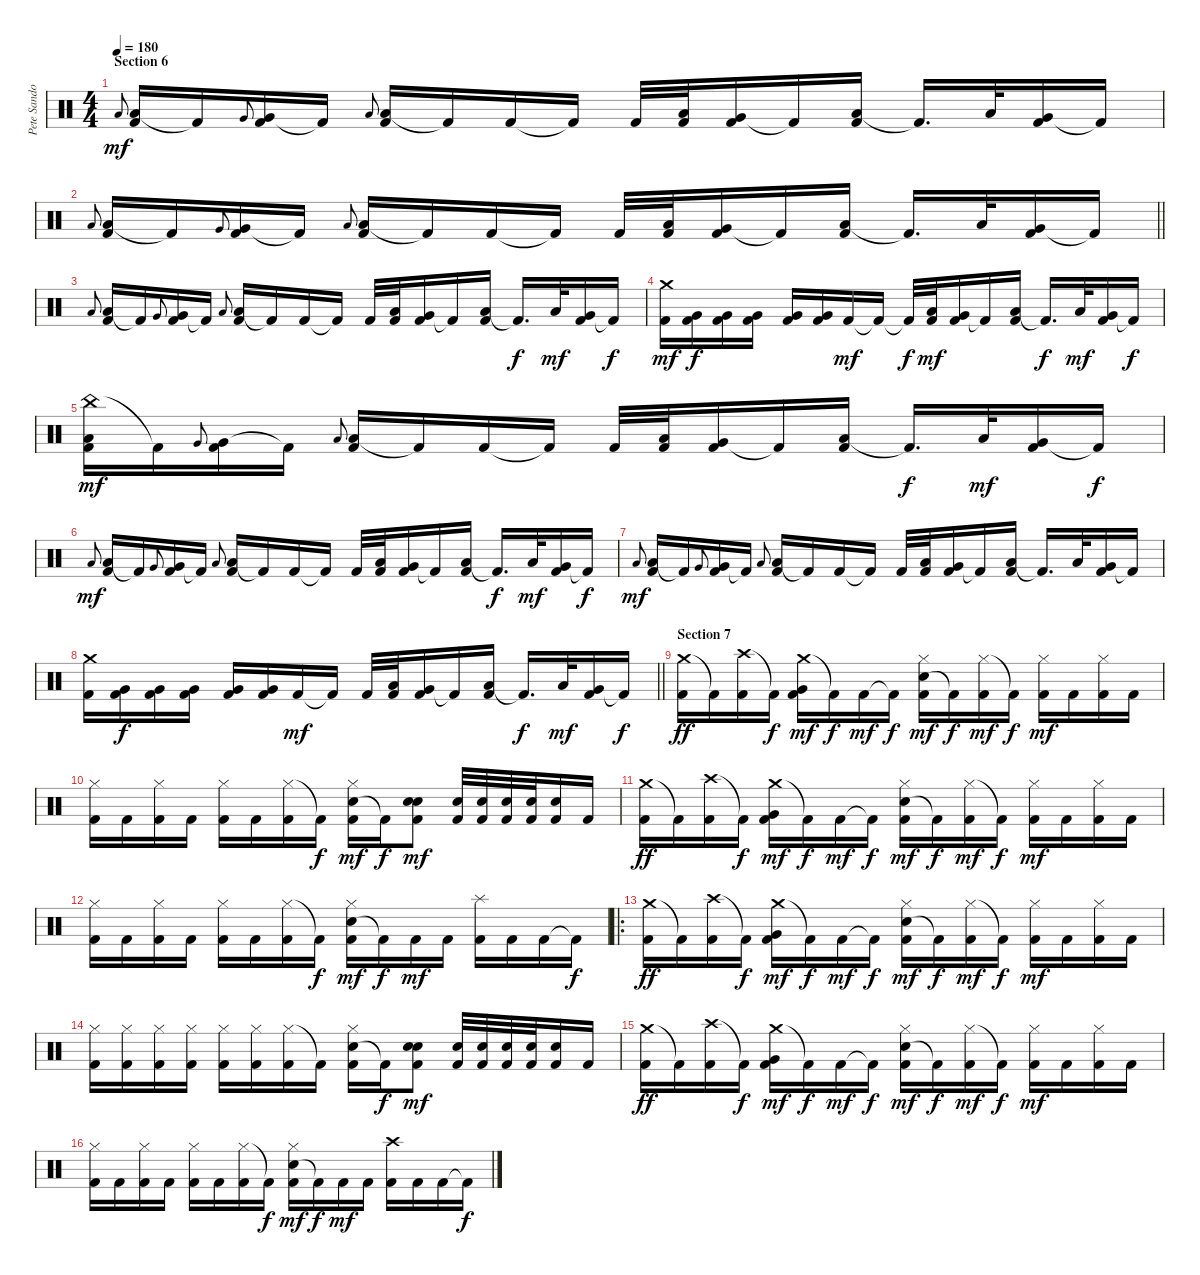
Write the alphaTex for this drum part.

\track ("Pete Sandoval" "Pete Sando") {instrument percussion}
\staff {score}
\articulation defaults
\ts (4 4)
\section ("" "Section 6")
\tempo 180
\clef neutral
\ks c "Low Tom (hit)".8{gr onbeat dy mf}
("Low Tom (hit)" "Kick (hit) 2").16 "Kick (hit) 2"{t}.16 "Very Low Tom (hit)".8{gr onbeat} ("Very Low Tom (hit)" "Kick (hit) 2").16 "Kick (hit) 2"{t}.16 "Low Tom (hit)".8{gr onbeat} ("Low Tom (hit)" "Kick (hit) 2").16 "Kick (hit) 2"{t}.16 "Kick (hit) 2".16 "Kick (hit) 2"{t}.16 "Kick (hit) 2".32 ("Low Tom (hit)" "Kick (hit) 2").32 ("Very Low Tom (hit)" "Kick (hit) 2").16 "Kick (hit) 2"{t}.16 ("Low Tom (hit)" "Kick (hit) 2").16 "Kick (hit) 2"{t}.16{d} "Low Floor Tom (hit)".32 ("Very Low Tom (hit)" "Kick (hit) 2").16 "Kick (hit) 2"{t}.16 |
\barLineRight lightlight "Low Tom (hit)".8{gr onbeat}
("Low Tom (hit)" "Kick (hit) 2").16 "Kick (hit) 2"{t}.16 "Very Low Tom (hit)".8{gr onbeat} ("Very Low Tom (hit)" "Kick (hit) 2").16 "Kick (hit) 2"{t}.16 "Low Tom (hit)".8{gr onbeat} ("Low Tom (hit)" "Kick (hit) 2").16 "Kick (hit) 2"{t}.16 "Kick (hit) 2".16 "Kick (hit) 2"{t}.16 "Kick (hit) 2".32 ("Low Tom (hit)" "Kick (hit) 2").32 ("Very Low Tom (hit)" "Kick (hit) 2").16 "Kick (hit) 2"{t}.16 ("Low Tom (hit)" "Kick (hit) 2").16 "Kick (hit) 2"{t}.16{d} "Low Floor Tom (hit)".32 ("Very Low Tom (hit)" "Kick (hit) 2").16 "Kick (hit) 2"{t}.16 |
"Low Tom (hit)".8{gr onbeat} ("Low Tom (hit)" "Kick (hit) 2").16 "Kick (hit) 2"{t}.16 "Very Low Tom (hit)".8{gr onbeat} ("Very Low Tom (hit)" "Kick (hit) 2").16 "Kick (hit) 2"{t}.16 "Low Tom (hit)".8{gr onbeat} ("Low Tom (hit)" "Kick (hit) 2").16 "Kick (hit) 2"{t}.16 "Kick (hit) 2".16 "Kick (hit) 2"{t}.16 "Kick (hit) 2".32 ("Low Tom (hit)" "Kick (hit) 2").32 ("Very Low Tom (hit)" "Kick (hit) 2").16 "Kick (hit) 2"{t}.16 ("Low Tom (hit)" "Kick (hit) 2").16 "Kick (hit) 2"{t}.16{d dy f} "Low Floor Tom (hit)".32{dy mf} ("Very Low Tom (hit)" "Kick (hit) 2").16 "Kick (hit) 2"{t}.16{dy f} |
("Crash medium (hit)" "Kick (hit) 2").16{dy mf} ("Very Low Tom (hit)" "Kick (hit) 2").16{dy f} ("Very Low Tom (hit)" "Kick (hit) 2").16 ("Very Low Tom (hit)" "Kick (hit) 2").16 ("Very Low Tom (hit)" "Kick (hit) 2").16 ("Very Low Tom (hit)" "Kick (hit) 2").16 "Kick (hit) 2".16{dy mf} "Kick (hit) 2"{t}.16 "Kick (hit) 2"{t}.32{dy f} ("Low Tom (hit)" "Kick (hit) 2").32{dy mf} ("Very Low Tom (hit)" "Kick (hit) 2").16 "Kick (hit) 2"{t}.16 ("Low Tom (hit)" "Kick (hit) 2").16 "Kick (hit) 2"{t}.16{d dy f} "Low Floor Tom (hit)".32{dy mf} ("Very Low Tom (hit)" "Kick (hit) 2").16 "Kick (hit) 2"{t}.16{dy f} |
("China (hit)" "Low Tom (hit)" "Kick (hit) 2").16{dy mf} "Kick (hit) 2"{t}.16 "Very Low Tom (hit)".8{gr onbeat} ("Very Low Tom (hit)" "Kick (hit) 2").16 "Kick (hit) 2"{t}.16 "Low Tom (hit)".8{gr onbeat} ("Low Tom (hit)" "Kick (hit) 2").16 "Kick (hit) 2"{t}.16 "Kick (hit) 2".16 "Kick (hit) 2"{t}.16 "Kick (hit) 2".32 ("Low Tom (hit)" "Kick (hit) 2").32 ("Very Low Tom (hit)" "Kick (hit) 2").16 "Kick (hit) 2"{t}.16 ("Low Tom (hit)" "Kick (hit) 2").16 "Kick (hit) 2"{t}.16{d dy f} "Low Floor Tom (hit)".32{dy mf} ("Very Low Tom (hit)" "Kick (hit) 2").16 "Kick (hit) 2"{t}.16{dy f} |
"Low Tom (hit)".8{gr onbeat dy mf} ("Low Tom (hit)" "Kick (hit) 2").16 "Kick (hit) 2"{t}.16 "Very Low Tom (hit)".8{gr onbeat} ("Very Low Tom (hit)" "Kick (hit) 2").16 "Kick (hit) 2"{t}.16 "Low Tom (hit)".8{gr onbeat} ("Low Tom (hit)" "Kick (hit) 2").16 "Kick (hit) 2"{t}.16 "Kick (hit) 2".16 "Kick (hit) 2"{t}.16 "Kick (hit) 2".32 ("Low Tom (hit)" "Kick (hit) 2").32 ("Very Low Tom (hit)" "Kick (hit) 2").16 "Kick (hit) 2"{t}.16 ("Low Tom (hit)" "Kick (hit) 2").16 "Kick (hit) 2"{t}.16{d dy f} "Low Floor Tom (hit)".32{dy mf} ("Very Low Tom (hit)" "Kick (hit) 2").16 "Kick (hit) 2"{t}.16{dy f} |
"Low Tom (hit)".8{gr onbeat dy mf} ("Low Tom (hit)" "Kick (hit) 2").16 "Kick (hit) 2"{t}.16 "Very Low Tom (hit)".8{gr onbeat} ("Very Low Tom (hit)" "Kick (hit) 2").16 "Kick (hit) 2"{t}.16 "Low Tom (hit)".8{gr onbeat} ("Low Tom (hit)" "Kick (hit) 2").16 "Kick (hit) 2"{t}.16 "Kick (hit) 2".16 "Kick (hit) 2"{t}.16 "Kick (hit) 2".32 ("Low Tom (hit)" "Kick (hit) 2").32 ("Very Low Tom (hit)" "Kick (hit) 2").16 "Kick (hit) 2"{t}.16 ("Low Tom (hit)" "Kick (hit) 2").16 "Kick (hit) 2"{t}.16{d} "Low Floor Tom (hit)".32 ("Very Low Tom (hit)" "Kick (hit) 2").16 "Kick (hit) 2"{t}.16 |
\barLineRight lightlight
("Crash medium (hit)" "Kick (hit) 2").16 ("Very Low Tom (hit)" "Kick (hit) 2").16{dy f} ("Very Low Tom (hit)" "Kick (hit) 2").16 ("Very Low Tom (hit)" "Kick (hit) 2").16 ("Very Low Tom (hit)" "Kick (hit) 2").16 ("Very Low Tom (hit)" "Kick (hit) 2").16 "Kick (hit) 2".16{dy mf} "Kick (hit) 2"{t}.16 "Kick (hit) 2".32 ("Low Tom (hit)" "Kick (hit) 2").32 ("Very Low Tom (hit)" "Kick (hit) 2").16 "Kick (hit) 2"{t}.16 ("Low Tom (hit)" "Kick (hit) 2").16 "Kick (hit) 2"{t}.16{d dy f} "Low Floor Tom (hit)".32{dy mf} ("Very Low Tom (hit)" "Kick (hit) 2").16 "Kick (hit) 2"{t}.16{dy f} |
\section ("" "Section 7")
("Crash medium (hit)" "Kick (hit) 2").16{dy ff} "Kick (hit) 2"{t}.16 ("Crash high (hit)" "Kick (hit) 2").16 "Kick (hit) 2"{t}.16{dy f} ("Crash medium (hit)" "Very Low Tom (hit)" "Kick (hit) 2").16{dy mf} "Kick (hit) 2"{t}.16{dy f} "Kick (hit) 2".16{dy mf} "Kick (hit) 2"{t}.16{dy f} ("Snare (hit) 2" "Hi-Hat (closed)" "Kick (hit) 2").16{dy mf} "Kick (hit) 2"{t}.16{dy f} ("Hi-Hat (closed)" "Kick (hit) 2").16{dy mf} "Kick (hit) 2"{t}.16{dy f} ("Hi-Hat (closed)" "Kick (hit) 2").16{dy mf} "Kick (hit) 2".16 ("Hi-Hat (closed)" "Kick (hit) 2").16 "Kick (hit) 2".16 |
("Hi-Hat (closed)" "Kick (hit) 2").16 "Kick (hit) 2".16 ("Hi-Hat (closed)" "Kick (hit) 2").16 "Kick (hit) 2".16 ("Hi-Hat (closed)" "Kick (hit) 2").16 "Kick (hit) 2".16 ("Hi-Hat (closed)" "Kick (hit) 2").16 "Kick (hit) 2"{t}.16{dy f} ("Snare (hit) 2" "Hi-Hat (closed)" "Kick (hit) 2").16{dy mf} "Kick (hit) 2"{t}.16{dy f} ("Snare (hit) 2" "Snare (hit) 2" "Kick (hit) 2").8{dy mf} ("Snare (hit) 2" "Kick (hit) 2").32 ("Snare (hit) 2" "Kick (hit) 2").32 ("Snare (hit) 2" "Kick (hit) 2").32 ("Snare (hit) 2" "Kick (hit) 2").32 ("Snare (hit) 2" "Kick (hit) 2").16 "Kick (hit) 2".16 |
("Crash medium (hit)" "Kick (hit) 2").16{dy ff} "Kick (hit) 2"{t}.16 ("Crash high (hit)" "Kick (hit) 2").16 "Kick (hit) 2"{t}.16{dy f} ("Crash medium (hit)" "Very Low Tom (hit)" "Kick (hit) 2").16{dy mf} "Kick (hit) 2"{t}.16{dy f} "Kick (hit) 2".16{dy mf} "Kick (hit) 2"{t}.16{dy f} ("Snare (hit) 2" "Hi-Hat (closed)" "Kick (hit) 2").16{dy mf} "Kick (hit) 2"{t}.16{dy f} ("Hi-Hat (closed)" "Kick (hit) 2").16{dy mf} "Kick (hit) 2"{t}.16{dy f} ("Hi-Hat (closed)" "Kick (hit) 2").16{dy mf} "Kick (hit) 2".16 ("Hi-Hat (closed)" "Kick (hit) 2").16 "Kick (hit) 2".16 |
("Hi-Hat (closed)" "Kick (hit) 2").16 "Kick (hit) 2".16 ("Hi-Hat (closed)" "Kick (hit) 2").16 "Kick (hit) 2".16 ("Hi-Hat (closed)" "Kick (hit) 2").16 "Kick (hit) 2".16 ("Hi-Hat (closed)" "Kick (hit) 2").16 "Kick (hit) 2"{t}.16{dy f} ("Snare (hit) 2" "Hi-Hat (closed)" "Kick (hit) 2").16{dy mf} "Kick (hit) 2"{t}.16{dy f} "Kick (hit) 2".16{dy mf} "Kick (hit) 2".16 ("Splash (hit)" "Kick (hit) 2").16 "Kick (hit) 2".16 "Kick (hit) 2".16 "Kick (hit) 2"{t}.16{dy f} |
\ro
("Crash medium (hit)" "Kick (hit) 2").16{dy ff} "Kick (hit) 2"{t}.16 ("Crash high (hit)" "Kick (hit) 2").16 "Kick (hit) 2"{t}.16{dy f} ("Crash medium (hit)" "Very Low Tom (hit)" "Kick (hit) 2").16{dy mf} "Kick (hit) 2"{t}.16{dy f} "Kick (hit) 2".16{dy mf} "Kick (hit) 2"{t}.16{dy f} ("Snare (hit) 2" "Hi-Hat (closed)" "Kick (hit) 2").16{dy mf} "Kick (hit) 2"{t}.16{dy f} ("Hi-Hat (closed)" "Kick (hit) 2").16{dy mf} "Kick (hit) 2"{t}.16{dy f} ("Hi-Hat (closed)" "Kick (hit) 2").16{dy mf} "Kick (hit) 2".16 ("Hi-Hat (closed)" "Kick (hit) 2").16 "Kick (hit) 2".16 |
("Hi-Hat (closed)" "Kick (hit) 2").16 ("Hi-Hat (closed)" "Kick (hit) 2").16 ("Hi-Hat (closed)" "Kick (hit) 2").16 ("Hi-Hat (closed)" "Kick (hit) 2").16 ("Hi-Hat (closed)" "Kick (hit) 2").16 ("Hi-Hat (closed)" "Kick (hit) 2").16 ("Hi-Hat (closed)" "Kick (hit) 2").16 "Kick (hit) 2"{t}.16 ("Snare (hit) 2" "Hi-Hat (closed)" "Kick (hit) 2").16 "Kick (hit) 2"{t}.16{dy f} ("Snare (hit) 2" "Snare (hit) 2" "Kick (hit) 2").8{dy mf} ("Snare (hit) 2" "Kick (hit) 2").32 ("Snare (hit) 2" "Kick (hit) 2").32 ("Snare (hit) 2" "Kick (hit) 2").32 ("Snare (hit) 2" "Kick (hit) 2").32 ("Snare (hit) 2" "Kick (hit) 2").16 "Kick (hit) 2".16 |
("Crash medium (hit)" "Kick (hit) 2").16{dy ff} "Kick (hit) 2"{t}.16 ("Crash high (hit)" "Kick (hit) 2").16 "Kick (hit) 2"{t}.16{dy f} ("Crash medium (hit)" "Very Low Tom (hit)" "Kick (hit) 2").16{dy mf} "Kick (hit) 2"{t}.16{dy f} "Kick (hit) 2".16{dy mf} "Kick (hit) 2"{t}.16{dy f} ("Snare (hit) 2" "Hi-Hat (closed)" "Kick (hit) 2").16{dy mf} "Kick (hit) 2"{t}.16{dy f} ("Hi-Hat (closed)" "Kick (hit) 2").16{dy mf} "Kick (hit) 2"{t}.16{dy f} ("Hi-Hat (closed)" "Kick (hit) 2").16{dy mf} "Kick (hit) 2".16 ("Hi-Hat (closed)" "Kick (hit) 2").16 "Kick (hit) 2".16 |
("Hi-Hat (closed)" "Kick (hit) 2").16 "Kick (hit) 2".16 ("Hi-Hat (closed)" "Kick (hit) 2").16 "Kick (hit) 2".16 ("Hi-Hat (closed)" "Kick (hit) 2").16 "Kick (hit) 2".16 ("Hi-Hat (closed)" "Kick (hit) 2").16 "Kick (hit) 2"{t}.16{dy f} ("Snare (hit) 2" "Hi-Hat (closed)" "Kick (hit) 2").16{dy mf} "Kick (hit) 2"{t}.16{dy f} "Kick (hit) 2".16{dy mf} "Kick (hit) 2".16 ("Crash high (hit)" "Kick (hit) 2").16 "Kick (hit) 2".16 "Kick (hit) 2".16 "Kick (hit) 2"{t}.16{dy f}
